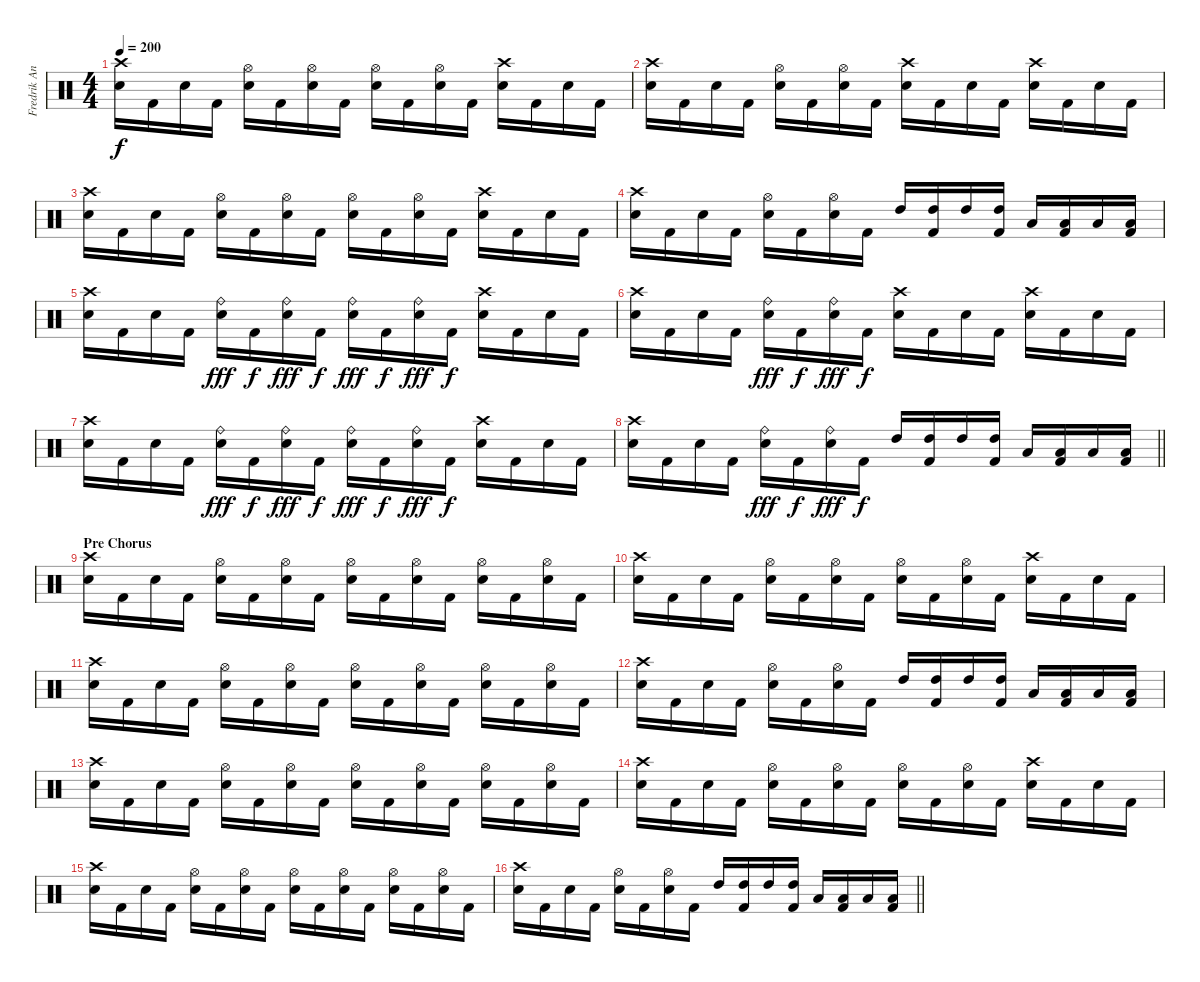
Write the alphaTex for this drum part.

\track ("Fredrik Andersson " "Fredrik An") {instrument percussion}
\staff {score}
\articulation defaults
\ts (4 4)
\tempo 200
\clef neutral
\ks c
("Crash high (hit)" "Snare (hit) 2").16{dy f} "Kick (hit) 2".16 "Snare (hit) 2".16 "Kick (hit) 2".16 ("Hi-Hat (open)" "Snare (hit) 2").16 "Kick (hit) 2".16 ("Hi-Hat (open)" "Snare (hit) 2").16 "Kick (hit) 2".16 ("Hi-Hat (open)" "Snare (hit) 2").16 "Kick (hit) 2".16 ("Hi-Hat (open)" "Snare (hit) 2").16 "Kick (hit) 2".16 ("Crash high (hit)" "Snare (hit) 2").16 "Kick (hit) 2".16 "Snare (hit) 2".16 "Kick (hit) 2".16 |
("Crash high (hit)" "Snare (hit) 2").16 "Kick (hit) 2".16 "Snare (hit) 2".16 "Kick (hit) 2".16 ("Hi-Hat (open)" "Snare (hit) 2").16 "Kick (hit) 2".16 ("Hi-Hat (open)" "Snare (hit) 2").16 "Kick (hit) 2".16 ("Crash high (hit)" "Snare (hit) 2").16 "Kick (hit) 2".16 "Snare (hit) 2".16 "Kick (hit) 2".16 ("Crash high (hit)" "Snare (hit) 2").16 "Kick (hit) 2".16 "Snare (hit) 2".16 "Kick (hit) 2".16 |
("Crash high (hit)" "Snare (hit) 2").16 "Kick (hit) 2".16 "Snare (hit) 2".16 "Kick (hit) 2".16 ("Hi-Hat (open)" "Snare (hit) 2").16 "Kick (hit) 2".16 ("Hi-Hat (open)" "Snare (hit) 2").16 "Kick (hit) 2".16 ("Hi-Hat (open)" "Snare (hit) 2").16 "Kick (hit) 2".16 ("Hi-Hat (open)" "Snare (hit) 2").16 "Kick (hit) 2".16 ("Crash high (hit)" "Snare (hit) 2").16 "Kick (hit) 2".16 "Snare (hit) 2".16 "Kick (hit) 2".16 |
("Crash high (hit)" "Snare (hit) 2").16 "Kick (hit) 2".16 "Snare (hit) 2".16 "Kick (hit) 2".16 ("Hi-Hat (open)" "Snare (hit) 2").16 "Kick (hit) 2".16 ("Hi-Hat (open)" "Snare (hit) 2").16 "Kick (hit) 2".16 "High Tom (hit)".16 ("High Tom (hit)" "Kick (hit) 2").16 "High Tom (hit)".16 ("High Tom (hit)" "Kick (hit) 2").16 "Low Tom (hit)".16 ("Low Tom (hit)" "Kick (hit) 2").16 "Low Tom (hit)".16 ("Low Tom (hit)" "Kick (hit) 2").16 |
("Crash high (hit)" "Snare (hit) 2").16 "Kick (hit) 2".16 "Snare (hit) 2".16 "Kick (hit) 2".16 ("Ride (bell)" "Snare (hit) 2").16{dy fff} "Kick (hit) 2".16{dy f} ("Ride (bell)" "Snare (hit) 2").16{dy fff} "Kick (hit) 2".16{dy f} ("Ride (bell)" "Snare (hit) 2").16{dy fff} "Kick (hit) 2".16{dy f} ("Ride (bell)" "Snare (hit) 2").16{dy fff} "Kick (hit) 2".16{dy f} ("Crash high (hit)" "Snare (hit) 2").16 "Kick (hit) 2".16 "Snare (hit) 2".16 "Kick (hit) 2".16 |
("Crash high (hit)" "Snare (hit) 2").16 "Kick (hit) 2".16 "Snare (hit) 2".16 "Kick (hit) 2".16 ("Ride (bell)" "Snare (hit) 2").16{dy fff} "Kick (hit) 2".16{dy f} ("Ride (bell)" "Snare (hit) 2").16{dy fff} "Kick (hit) 2".16{dy f} ("Crash high (hit)" "Snare (hit) 2").16 "Kick (hit) 2".16 "Snare (hit) 2".16 "Kick (hit) 2".16 ("Crash high (hit)" "Snare (hit) 2").16 "Kick (hit) 2".16 "Snare (hit) 2".16 "Kick (hit) 2".16 |
("Crash high (hit)" "Snare (hit) 2").16 "Kick (hit) 2".16 "Snare (hit) 2".16 "Kick (hit) 2".16 ("Ride (bell)" "Snare (hit) 2").16{dy fff} "Kick (hit) 2".16{dy f} ("Ride (bell)" "Snare (hit) 2").16{dy fff} "Kick (hit) 2".16{dy f} ("Ride (bell)" "Snare (hit) 2").16{dy fff} "Kick (hit) 2".16{dy f} ("Ride (bell)" "Snare (hit) 2").16{dy fff} "Kick (hit) 2".16{dy f} ("Crash high (hit)" "Snare (hit) 2").16 "Kick (hit) 2".16 "Snare (hit) 2".16 "Kick (hit) 2".16 |
\barLineRight lightlight
("Crash high (hit)" "Snare (hit) 2").16 "Kick (hit) 2".16 "Snare (hit) 2".16 "Kick (hit) 2".16 ("Ride (bell)" "Snare (hit) 2").16{dy fff} "Kick (hit) 2".16{dy f} ("Ride (bell)" "Snare (hit) 2").16{dy fff} "Kick (hit) 2".16{dy f} "High Tom (hit)".16 ("High Tom (hit)" "Kick (hit) 2").16 "High Tom (hit)".16 ("High Tom (hit)" "Kick (hit) 2").16 "Low Tom (hit)".16 ("Low Tom (hit)" "Kick (hit) 2").16 "Low Tom (hit)".16 ("Low Tom (hit)" "Kick (hit) 2").16 |
\section ("" "Pre Chorus")
("Crash high (hit)" "Snare (hit) 2").16 "Kick (hit) 2".16 "Snare (hit) 2".16 "Kick (hit) 2".16 ("Hi-Hat (open)" "Snare (hit) 2").16 "Kick (hit) 2".16 ("Hi-Hat (open)" "Snare (hit) 2").16 "Kick (hit) 2".16 ("Hi-Hat (open)" "Snare (hit) 2").16 "Kick (hit) 2".16 ("Hi-Hat (open)" "Snare (hit) 2").16 "Kick (hit) 2".16 ("Hi-Hat (open)" "Snare (hit) 2").16 "Kick (hit) 2".16 ("Hi-Hat (open)" "Snare (hit) 2").16 "Kick (hit) 2".16 |
("Crash high (hit)" "Snare (hit) 2").16 "Kick (hit) 2".16 "Snare (hit) 2".16 "Kick (hit) 2".16 ("Hi-Hat (open)" "Snare (hit) 2").16 "Kick (hit) 2".16 ("Hi-Hat (open)" "Snare (hit) 2").16 "Kick (hit) 2".16 ("Hi-Hat (open)" "Snare (hit) 2").16 "Kick (hit) 2".16 ("Hi-Hat (open)" "Snare (hit) 2").16 "Kick (hit) 2".16 ("Crash high (hit)" "Snare (hit) 2").16 "Kick (hit) 2".16 "Snare (hit) 2".16 "Kick (hit) 2".16 |
("Crash high (hit)" "Snare (hit) 2").16 "Kick (hit) 2".16 "Snare (hit) 2".16 "Kick (hit) 2".16 ("Hi-Hat (open)" "Snare (hit) 2").16 "Kick (hit) 2".16 ("Hi-Hat (open)" "Snare (hit) 2").16 "Kick (hit) 2".16 ("Hi-Hat (open)" "Snare (hit) 2").16 "Kick (hit) 2".16 ("Hi-Hat (open)" "Snare (hit) 2").16 "Kick (hit) 2".16 ("Hi-Hat (open)" "Snare (hit) 2").16 "Kick (hit) 2".16 ("Hi-Hat (open)" "Snare (hit) 2").16 "Kick (hit) 2".16 |
("Crash high (hit)" "Snare (hit) 2").16 "Kick (hit) 2".16 "Snare (hit) 2".16 "Kick (hit) 2".16 ("Hi-Hat (open)" "Snare (hit) 2").16 "Kick (hit) 2".16 ("Hi-Hat (open)" "Snare (hit) 2").16 "Kick (hit) 2".16 "High Tom (hit)".16 ("High Tom (hit)" "Kick (hit) 2").16 "High Tom (hit)".16 ("High Tom (hit)" "Kick (hit) 2").16 "Low Tom (hit)".16 ("Low Tom (hit)" "Kick (hit) 2").16 "Low Tom (hit)".16 ("Low Tom (hit)" "Kick (hit) 2").16 |
("Crash high (hit)" "Snare (hit) 2").16 "Kick (hit) 2".16 "Snare (hit) 2".16 "Kick (hit) 2".16 ("Hi-Hat (open)" "Snare (hit) 2").16 "Kick (hit) 2".16 ("Hi-Hat (open)" "Snare (hit) 2").16 "Kick (hit) 2".16 ("Hi-Hat (open)" "Snare (hit) 2").16 "Kick (hit) 2".16 ("Hi-Hat (open)" "Snare (hit) 2").16 "Kick (hit) 2".16 ("Hi-Hat (open)" "Snare (hit) 2").16 "Kick (hit) 2".16 ("Hi-Hat (open)" "Snare (hit) 2").16 "Kick (hit) 2".16 |
("Crash high (hit)" "Snare (hit) 2").16 "Kick (hit) 2".16 "Snare (hit) 2".16 "Kick (hit) 2".16 ("Hi-Hat (open)" "Snare (hit) 2").16 "Kick (hit) 2".16 ("Hi-Hat (open)" "Snare (hit) 2").16 "Kick (hit) 2".16 ("Hi-Hat (open)" "Snare (hit) 2").16 "Kick (hit) 2".16 ("Hi-Hat (open)" "Snare (hit) 2").16 "Kick (hit) 2".16 ("Crash high (hit)" "Snare (hit) 2").16 "Kick (hit) 2".16 "Snare (hit) 2".16 "Kick (hit) 2".16 |
("Crash high (hit)" "Snare (hit) 2").16 "Kick (hit) 2".16 "Snare (hit) 2".16 "Kick (hit) 2".16 ("Hi-Hat (open)" "Snare (hit) 2").16 "Kick (hit) 2".16 ("Hi-Hat (open)" "Snare (hit) 2").16 "Kick (hit) 2".16 ("Hi-Hat (open)" "Snare (hit) 2").16 "Kick (hit) 2".16 ("Hi-Hat (open)" "Snare (hit) 2").16 "Kick (hit) 2".16 ("Hi-Hat (open)" "Snare (hit) 2").16 "Kick (hit) 2".16 ("Hi-Hat (open)" "Snare (hit) 2").16 "Kick (hit) 2".16 |
\barLineRight lightlight
("Crash high (hit)" "Snare (hit) 2").16 "Kick (hit) 2".16 "Snare (hit) 2".16 "Kick (hit) 2".16 ("Hi-Hat (open)" "Snare (hit) 2").16 "Kick (hit) 2".16 ("Hi-Hat (open)" "Snare (hit) 2").16 "Kick (hit) 2".16 "High Tom (hit)".16 ("High Tom (hit)" "Kick (hit) 2").16 "High Tom (hit)".16 ("High Tom (hit)" "Kick (hit) 2").16 "Low Tom (hit)".16 ("Low Tom (hit)" "Kick (hit) 2").16 "Low Tom (hit)".16 ("Low Tom (hit)" "Kick (hit) 2").16
